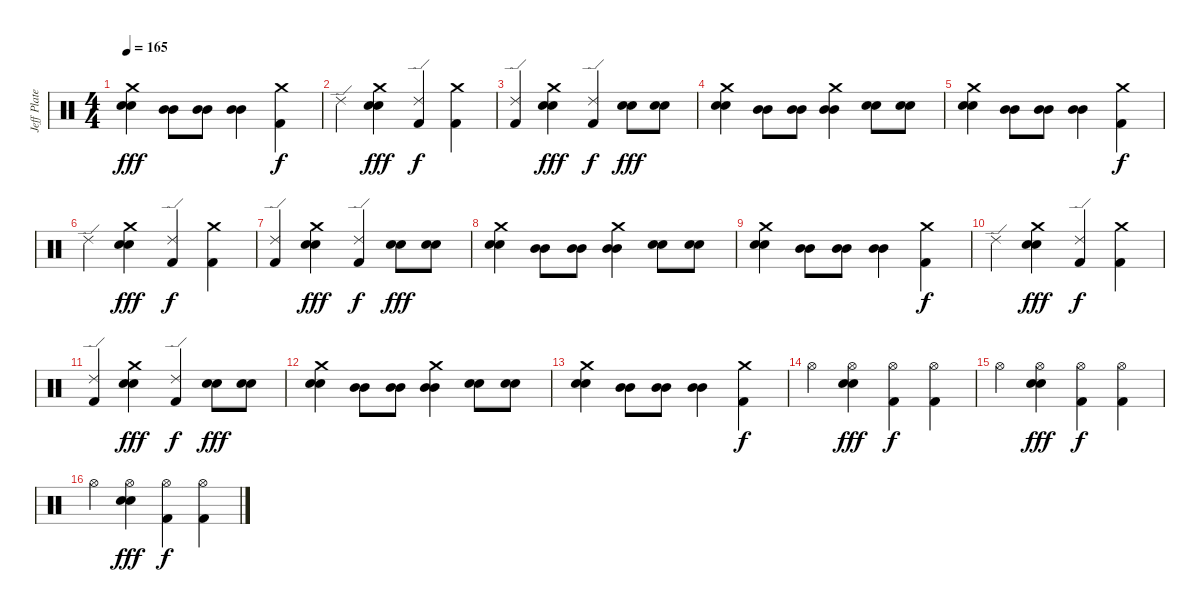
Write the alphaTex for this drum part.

\track ("Jeff Plate" "Jeff Plate") {instrument percussion}
\staff {score}
\articulation defaults
\ts (4 4)
\tempo 165
\clef neutral
\ks c
("Crash medium (hit)" "Electric Snare (hit)" "Electric Snare (hit)").4{dy fff} ("Mid Tom (hit)" "Mid Tom (hit)").8 ("Mid Tom (hit)" "Mid Tom (hit)").8 ("Mid Tom (hit)" "Mid Tom (hit)").4 ("Crash medium (hit)" "Kick (hit) 2").4{dy f} |
"Ride (edge) 2".4 ("Crash medium (hit)" "Electric Snare (hit)" "Electric Snare (hit)").4{dy fff} ("Ride (edge) 2" "Kick (hit) 2").4{dy f} ("Crash medium (hit)" "Kick (hit) 2").4 |
("Ride (edge) 2" "Kick (hit) 2").4 ("Crash medium (hit)" "Electric Snare (hit)" "Electric Snare (hit)").4{dy fff} ("Ride (edge) 2" "Kick (hit) 2").4{dy f} ("Electric Snare (hit)" "Electric Snare (hit)").8{dy fff} ("Electric Snare (hit)" "Electric Snare (hit)").8 |
("Crash medium (hit)" "Electric Snare (hit)" "Electric Snare (hit)").4 ("Mid Tom (hit)" "Mid Tom (hit)").8 ("Mid Tom (hit)" "Mid Tom (hit)").8 ("Crash medium (hit)" "Mid Tom (hit)" "Mid Tom (hit)").4 ("Electric Snare (hit)" "Electric Snare (hit)").8 ("Electric Snare (hit)" "Electric Snare (hit)").8 |
("Crash medium (hit)" "Electric Snare (hit)" "Electric Snare (hit)").4 ("Mid Tom (hit)" "Mid Tom (hit)").8 ("Mid Tom (hit)" "Mid Tom (hit)").8 ("Mid Tom (hit)" "Mid Tom (hit)").4 ("Crash medium (hit)" "Kick (hit) 2").4{dy f} |
"Ride (edge) 2".4 ("Crash medium (hit)" "Electric Snare (hit)" "Electric Snare (hit)").4{dy fff} ("Ride (edge) 2" "Kick (hit) 2").4{dy f} ("Crash medium (hit)" "Kick (hit) 2").4 |
("Ride (edge) 2" "Kick (hit) 2").4 ("Crash medium (hit)" "Electric Snare (hit)" "Electric Snare (hit)").4{dy fff} ("Ride (edge) 2" "Kick (hit) 2").4{dy f} ("Electric Snare (hit)" "Electric Snare (hit)").8{dy fff} ("Electric Snare (hit)" "Electric Snare (hit)").8 |
("Crash medium (hit)" "Electric Snare (hit)" "Electric Snare (hit)").4 ("Mid Tom (hit)" "Mid Tom (hit)").8 ("Mid Tom (hit)" "Mid Tom (hit)").8 ("Crash medium (hit)" "Mid Tom (hit)" "Mid Tom (hit)").4 ("Electric Snare (hit)" "Electric Snare (hit)").8 ("Electric Snare (hit)" "Electric Snare (hit)").8 |
("Crash medium (hit)" "Electric Snare (hit)" "Electric Snare (hit)").4 ("Mid Tom (hit)" "Mid Tom (hit)").8 ("Mid Tom (hit)" "Mid Tom (hit)").8 ("Mid Tom (hit)" "Mid Tom (hit)").4 ("Crash medium (hit)" "Kick (hit) 2").4{dy f} |
"Ride (edge) 2".4 ("Crash medium (hit)" "Electric Snare (hit)" "Electric Snare (hit)").4{dy fff} ("Ride (edge) 2" "Kick (hit) 2").4{dy f} ("Crash medium (hit)" "Kick (hit) 2").4 |
("Ride (edge) 2" "Kick (hit) 2").4 ("Crash medium (hit)" "Electric Snare (hit)" "Electric Snare (hit)").4{dy fff} ("Ride (edge) 2" "Kick (hit) 2").4{dy f} ("Electric Snare (hit)" "Electric Snare (hit)").8{dy fff} ("Electric Snare (hit)" "Electric Snare (hit)").8 |
("Crash medium (hit)" "Electric Snare (hit)" "Electric Snare (hit)").4 ("Mid Tom (hit)" "Mid Tom (hit)").8 ("Mid Tom (hit)" "Mid Tom (hit)").8 ("Crash medium (hit)" "Mid Tom (hit)" "Mid Tom (hit)").4 ("Electric Snare (hit)" "Electric Snare (hit)").8 ("Electric Snare (hit)" "Electric Snare (hit)").8 |
("Crash medium (hit)" "Electric Snare (hit)" "Electric Snare (hit)").4 ("Mid Tom (hit)" "Mid Tom (hit)").8 ("Mid Tom (hit)" "Mid Tom (hit)").8 ("Mid Tom (hit)" "Mid Tom (hit)").4 ("Crash medium (hit)" "Kick (hit) 2").4{dy f} |
"Hi-Hat (open)".4 ("Hi-Hat (open)" "Electric Snare (hit)" "Electric Snare (hit)").4{dy fff} ("Hi-Hat (open)" "Kick (hit) 2").4{dy f} ("Hi-Hat (open)" "Kick (hit) 2").4 |
"Hi-Hat (open)".4 ("Hi-Hat (open)" "Electric Snare (hit)" "Electric Snare (hit)").4{dy fff} ("Hi-Hat (open)" "Kick (hit) 2").4{dy f} ("Hi-Hat (open)" "Kick (hit) 2").4 |
"Hi-Hat (open)".4 ("Hi-Hat (open)" "Electric Snare (hit)" "Electric Snare (hit)").4{dy fff} ("Hi-Hat (open)" "Kick (hit) 2").4{dy f} ("Hi-Hat (open)" "Kick (hit) 2").4
